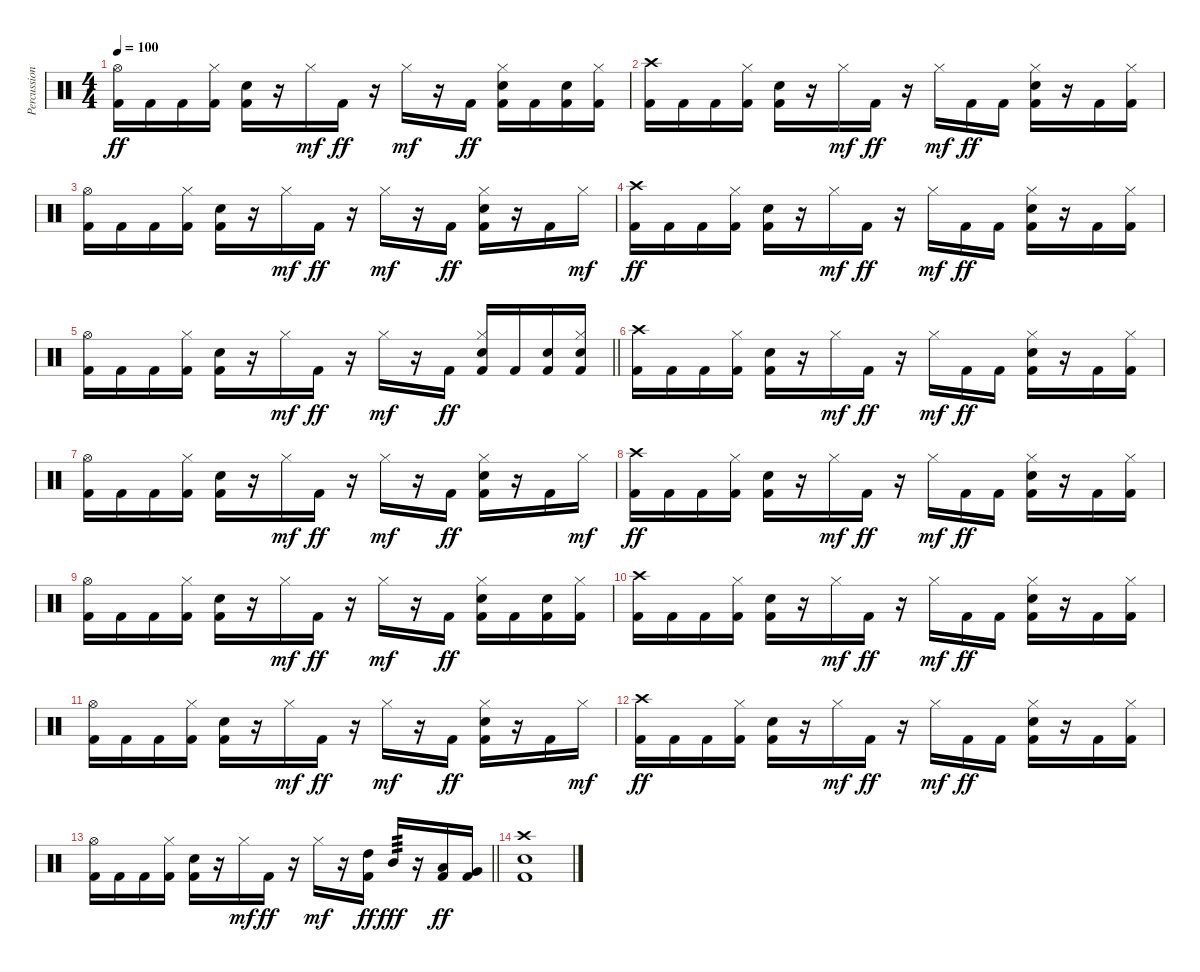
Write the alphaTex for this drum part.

\track ("Percussion" "Percussion") {instrument percussion}
\staff {score}
\articulation defaults
\ts (4 4)
\tempo 100
\clef neutral
\ks c
("Hi-Hat (open)" "Kick (hit) 2").16{dy ff} "Kick (hit) 2".16 "Kick (hit) 2".16 ("Hi-Hat (closed)" "Kick (hit) 2").16 ("Snare (hit) 2" "Kick (hit) 2").16 r.16 "Hi-Hat (closed)".16{dy mf} "Kick (hit) 2".16{dy ff} r.16 "Hi-Hat (closed)".16{dy mf} r.16 "Kick (hit) 2".16{dy ff} ("Hi-Hat (closed)" "Snare (hit) 2" "Kick (hit) 2").16 "Kick (hit) 2".16 ("Snare (hit) 2" "Kick (hit) 2").16 ("Hi-Hat (closed)" "Kick (hit) 2").16 |
("Crash high (hit)" "Kick (hit) 2").16 "Kick (hit) 2".16 "Kick (hit) 2".16 ("Hi-Hat (closed)" "Kick (hit) 2").16 ("Snare (hit) 2" "Kick (hit) 2").16 r.16 "Hi-Hat (closed)".16{dy mf} "Kick (hit) 2".16{dy ff} r.16 "Hi-Hat (closed)".16{dy mf} "Kick (hit) 2".16{dy ff} "Kick (hit) 2".16 ("Hi-Hat (closed)" "Snare (hit) 2" "Kick (hit) 2").16 r.16 "Kick (hit) 2".16 ("Hi-Hat (closed)" "Kick (hit) 2").16 |
("Hi-Hat (open)" "Kick (hit) 2").16 "Kick (hit) 2".16 "Kick (hit) 2".16 ("Hi-Hat (closed)" "Kick (hit) 2").16 ("Snare (hit) 2" "Kick (hit) 2").16 r.16 "Hi-Hat (closed)".16{dy mf} "Kick (hit) 2".16{dy ff} r.16 "Hi-Hat (closed)".16{dy mf} r.16 "Kick (hit) 2".16{dy ff} ("Hi-Hat (closed)" "Snare (hit) 2" "Kick (hit) 2").16 r.16 "Kick (hit) 2".16 "Hi-Hat (closed)".16{dy mf} |
("Crash high (hit)" "Kick (hit) 2").16{dy ff} "Kick (hit) 2".16 "Kick (hit) 2".16 ("Hi-Hat (closed)" "Kick (hit) 2").16 ("Snare (hit) 2" "Kick (hit) 2").16 r.16 "Hi-Hat (closed)".16{dy mf} "Kick (hit) 2".16{dy ff} r.16 "Hi-Hat (closed)".16{dy mf} "Kick (hit) 2".16{dy ff} "Kick (hit) 2".16 ("Hi-Hat (closed)" "Snare (hit) 2" "Kick (hit) 2").16 r.16 "Kick (hit) 2".16 ("Hi-Hat (closed)" "Kick (hit) 2").16 |
\barLineRight lightlight
("Hi-Hat (open)" "Kick (hit) 2").16 "Kick (hit) 2".16 "Kick (hit) 2".16 ("Hi-Hat (closed)" "Kick (hit) 2").16 ("Snare (hit) 2" "Kick (hit) 2").16 r.16 "Hi-Hat (closed)".16{dy mf} "Kick (hit) 2".16{dy ff} r.16 "Hi-Hat (closed)".16{dy mf} r.16 "Kick (hit) 2".16{dy ff} ("Hi-Hat (closed)" "Snare (hit) 2" "Kick (hit) 2").16 "Kick (hit) 2".16 ("Snare (hit) 2" "Kick (hit) 2").16 ("Hi-Hat (closed)" "Snare (hit) 2" "Kick (hit) 2").16 |
("Crash high (hit)" "Kick (hit) 2").16 "Kick (hit) 2".16 "Kick (hit) 2".16 ("Hi-Hat (closed)" "Kick (hit) 2").16 ("Snare (hit) 2" "Kick (hit) 2").16 r.16 "Hi-Hat (closed)".16{dy mf} "Kick (hit) 2".16{dy ff} r.16 "Hi-Hat (closed)".16{dy mf} "Kick (hit) 2".16{dy ff} "Kick (hit) 2".16 ("Hi-Hat (closed)" "Snare (hit) 2" "Kick (hit) 2").16 r.16 "Kick (hit) 2".16 ("Hi-Hat (closed)" "Kick (hit) 2").16 |
("Hi-Hat (open)" "Kick (hit) 2").16 "Kick (hit) 2".16 "Kick (hit) 2".16 ("Hi-Hat (closed)" "Kick (hit) 2").16 ("Snare (hit) 2" "Kick (hit) 2").16 r.16 "Hi-Hat (closed)".16{dy mf} "Kick (hit) 2".16{dy ff} r.16 "Hi-Hat (closed)".16{dy mf} r.16 "Kick (hit) 2".16{dy ff} ("Hi-Hat (closed)" "Snare (hit) 2" "Kick (hit) 2").16 r.16 "Kick (hit) 2".16 "Hi-Hat (closed)".16{dy mf} |
("Crash high (hit)" "Kick (hit) 2").16{dy ff} "Kick (hit) 2".16 "Kick (hit) 2".16 ("Hi-Hat (closed)" "Kick (hit) 2").16 ("Snare (hit) 2" "Kick (hit) 2").16 r.16 "Hi-Hat (closed)".16{dy mf} "Kick (hit) 2".16{dy ff} r.16 "Hi-Hat (closed)".16{dy mf} "Kick (hit) 2".16{dy ff} "Kick (hit) 2".16 ("Hi-Hat (closed)" "Snare (hit) 2" "Kick (hit) 2").16 r.16 "Kick (hit) 2".16 ("Hi-Hat (closed)" "Kick (hit) 2").16 |
("Hi-Hat (open)" "Kick (hit) 2").16 "Kick (hit) 2".16 "Kick (hit) 2".16 ("Hi-Hat (closed)" "Kick (hit) 2").16 ("Snare (hit) 2" "Kick (hit) 2").16 r.16 "Hi-Hat (closed)".16{dy mf} "Kick (hit) 2".16{dy ff} r.16 "Hi-Hat (closed)".16{dy mf} r.16 "Kick (hit) 2".16{dy ff} ("Hi-Hat (closed)" "Snare (hit) 2" "Kick (hit) 2").16 "Kick (hit) 2".16 ("Snare (hit) 2" "Kick (hit) 2").16 ("Hi-Hat (closed)" "Kick (hit) 2").16 |
("Crash high (hit)" "Kick (hit) 2").16 "Kick (hit) 2".16 "Kick (hit) 2".16 ("Hi-Hat (closed)" "Kick (hit) 2").16 ("Snare (hit) 2" "Kick (hit) 2").16 r.16 "Hi-Hat (closed)".16{dy mf} "Kick (hit) 2".16{dy ff} r.16 "Hi-Hat (closed)".16{dy mf} "Kick (hit) 2".16{dy ff} "Kick (hit) 2".16 ("Hi-Hat (closed)" "Snare (hit) 2" "Kick (hit) 2").16 r.16 "Kick (hit) 2".16 ("Hi-Hat (closed)" "Kick (hit) 2").16 |
("Hi-Hat (open)" "Kick (hit) 2").16 "Kick (hit) 2".16 "Kick (hit) 2".16 ("Hi-Hat (closed)" "Kick (hit) 2").16 ("Snare (hit) 2" "Kick (hit) 2").16 r.16 "Hi-Hat (closed)".16{dy mf} "Kick (hit) 2".16{dy ff} r.16 "Hi-Hat (closed)".16{dy mf} r.16 "Kick (hit) 2".16{dy ff} ("Hi-Hat (closed)" "Snare (hit) 2" "Kick (hit) 2").16 r.16 "Kick (hit) 2".16 "Hi-Hat (closed)".16{dy mf} |
("Crash high (hit)" "Kick (hit) 2").16{dy ff} "Kick (hit) 2".16 "Kick (hit) 2".16 ("Hi-Hat (closed)" "Kick (hit) 2").16 ("Snare (hit) 2" "Kick (hit) 2").16 r.16 "Hi-Hat (closed)".16{dy mf} "Kick (hit) 2".16{dy ff} r.16 "Hi-Hat (closed)".16{dy mf} "Kick (hit) 2".16{dy ff} "Kick (hit) 2".16 ("Hi-Hat (closed)" "Snare (hit) 2" "Kick (hit) 2").16 r.16 "Kick (hit) 2".16 ("Hi-Hat (closed)" "Kick (hit) 2").16 |
\barLineRight lightlight
("Hi-Hat (open)" "Kick (hit) 2").16 "Kick (hit) 2".16 "Kick (hit) 2".16 ("Hi-Hat (closed)" "Kick (hit) 2").16 ("Snare (hit) 2" "Kick (hit) 2").16 r.16 "Hi-Hat (closed)".16{dy mf} "Kick (hit) 2".16{dy ff} r.16 "Hi-Hat (closed)".16{dy mf} r.16 ("High Tom (hit)" "Kick (hit) 2").16{dy ff} "Mid Tom (hit)".16{tp 3 dy fff} r.16 ("Low Tom (hit)" "Kick (hit) 2").16{dy ff} ("Very Low Tom (hit)" "Kick (hit) 2").16 |
("Crash high (hit)" "Snare (hit) 2" "Kick (hit) 2").1
